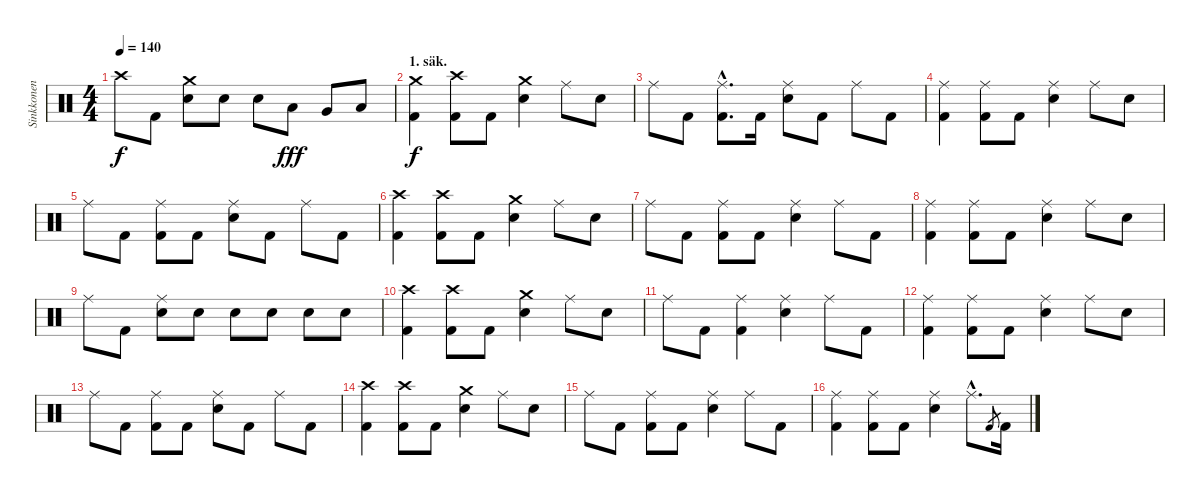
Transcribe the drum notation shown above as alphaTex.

\track ("Sinkkonen" "Sinkkonen") {instrument percussion}
\staff {score}
\articulation defaults
\ts (4 4)
\tempo 140
\clef neutral
\ks c "Crash high (hit)".8{dy f} "Kick (hit) 2".8
("Crash medium (hit)" "Snare (hit) 2").8 "Snare (hit) 2".8 "Snare (hit) 2".8 "Low Tom (hit)".8{dy fff} "Very Low Tom (hit)".8 "Low Floor Tom (hit)".8 |
\section ("" "1. säk.")
("Kick (hit) 2" "Crash medium (hit)").4{dy f} ("Kick (hit) 2" "Crash high (hit)").8 "Kick (hit) 2".8 ("Crash medium (hit)" "Snare (hit) 2").4 "Ride (middle)".8 "Snare (hit) 2".8 |
"Ride (middle)".8 "Kick (hit) 2".8 ("Kick (hit) 2"{hac} "Ride (middle)"{hac}).8{d} "Kick (hit) 2".16 ("Ride (middle)" "Snare (hit) 2").8 "Kick (hit) 2".8 "Ride (middle)".8 "Kick (hit) 2".8 |
("Kick (hit) 2" "Ride (middle)").4 ("Kick (hit) 2" "Ride (middle)").8 "Kick (hit) 2".8 ("Ride (middle)" "Snare (hit) 2").4 "Ride (middle)".8 "Snare (hit) 2".8 |
"Ride (middle)".8 "Kick (hit) 2".8 ("Kick (hit) 2" "Ride (middle)").8 "Kick (hit) 2".8 ("Ride (middle)" "Snare (hit) 2").8 "Kick (hit) 2".8 "Ride (middle)".8 "Kick (hit) 2".8 |
("Kick (hit) 2" "Crash high (hit)").4 ("Kick (hit) 2" "Crash high (hit)").8 "Kick (hit) 2".8 ("Crash medium (hit)" "Snare (hit) 2").4 "Ride (middle)".8 "Snare (hit) 2".8 |
"Ride (middle)".8 "Kick (hit) 2".8 ("Kick (hit) 2" "Ride (middle)").8 "Kick (hit) 2".8 ("Ride (middle)" "Snare (hit) 2").4 "Ride (middle)".8 "Kick (hit) 2".8 |
("Kick (hit) 2" "Ride (middle)").4 ("Kick (hit) 2" "Ride (middle)").8 "Kick (hit) 2".8 ("Ride (middle)" "Snare (hit) 2").4 "Ride (middle)".8 "Snare (hit) 2".8 |
"Ride (middle)".8 "Kick (hit) 2".8 ("Ride (middle)" "Snare (hit) 2").8 "Snare (hit) 2".8 "Snare (hit) 2".8 "Snare (hit) 2".8 "Snare (hit) 2".8 "Snare (hit) 2".8 |
("Kick (hit) 2" "Crash high (hit)").4 ("Kick (hit) 2" "Crash high (hit)").8 "Kick (hit) 2".8 ("Crash medium (hit)" "Snare (hit) 2").4 "Ride (middle)".8 "Snare (hit) 2".8 |
"Ride (middle)".8 "Kick (hit) 2".8 ("Kick (hit) 2" "Ride (middle)").4 ("Ride (middle)" "Snare (hit) 2").4 "Ride (middle)".8 "Kick (hit) 2".8 |
("Kick (hit) 2" "Ride (middle)").4 ("Kick (hit) 2" "Ride (middle)").8 "Kick (hit) 2".8 ("Ride (middle)" "Snare (hit) 2").4 "Ride (middle)".8 "Snare (hit) 2".8 |
"Ride (middle)".8 "Kick (hit) 2".8 ("Kick (hit) 2" "Ride (middle)").8 "Kick (hit) 2".8 ("Ride (middle)" "Snare (hit) 2").8 "Kick (hit) 2".8 "Ride (middle)".8 "Kick (hit) 2".8 |
("Kick (hit) 2" "Crash high (hit)").4 ("Kick (hit) 2" "Crash high (hit)").8 "Kick (hit) 2".8 ("Crash medium (hit)" "Snare (hit) 2").4 "Ride (middle)".8 "Snare (hit) 2".8 |
"Ride (middle)".8 "Kick (hit) 2".8 ("Kick (hit) 2" "Ride (middle)").8 "Kick (hit) 2".8 ("Ride (middle)" "Snare (hit) 2").4 "Ride (middle)".8 "Kick (hit) 2".8 |
("Kick (hit) 2" "Ride (middle)").4 ("Kick (hit) 2" "Ride (middle)").8 "Kick (hit) 2".8 ("Ride (middle)" "Snare (hit) 2").4 "Ride (middle)"{hac}.8{d} "Kick (hit) 2".8{gr} "Kick (hit) 2".16
